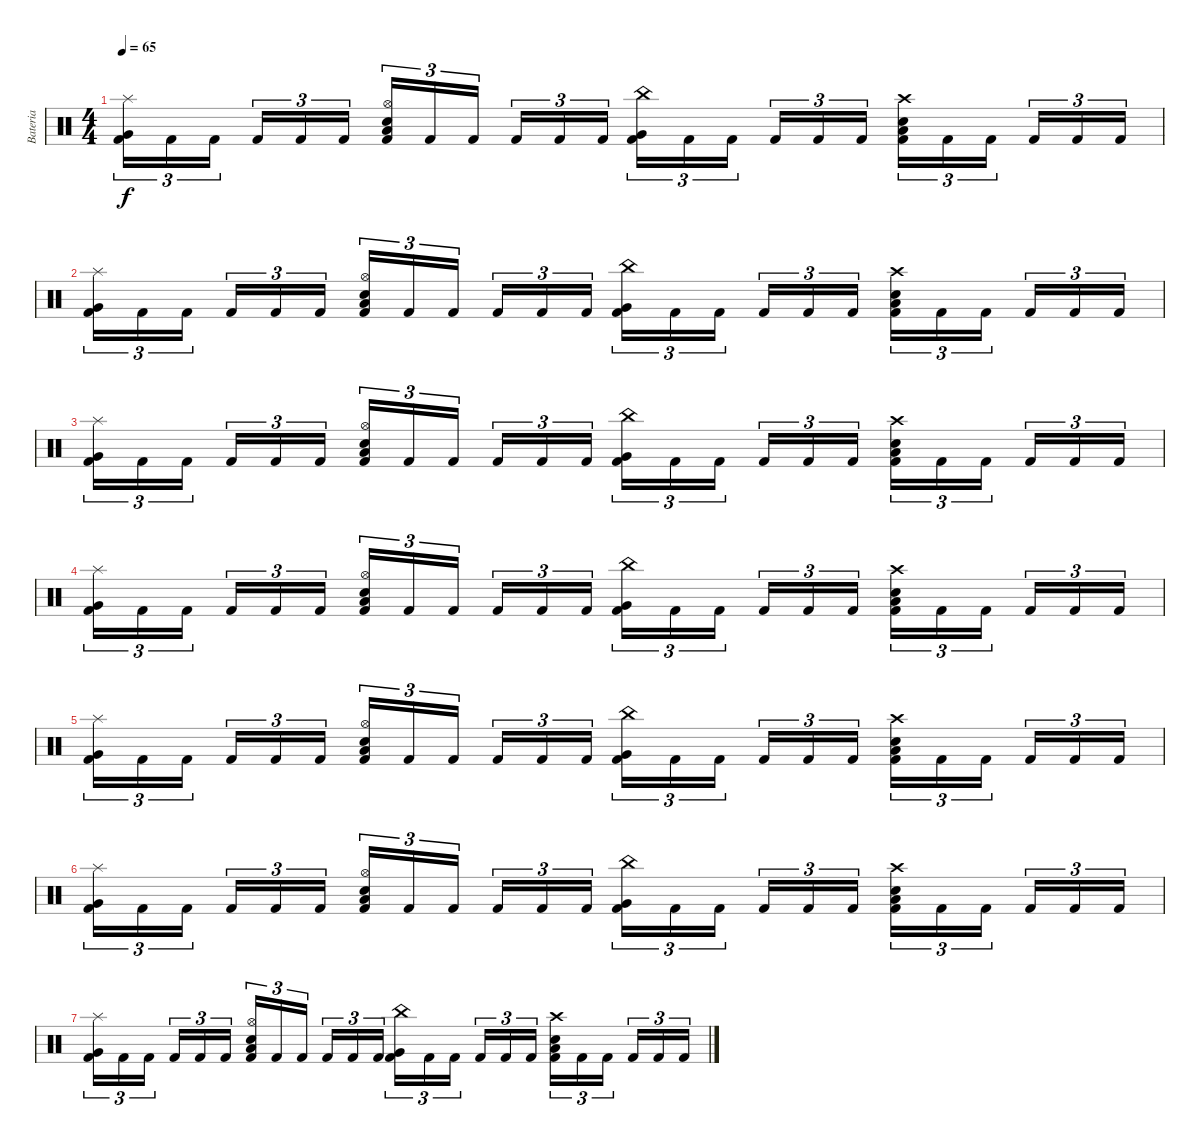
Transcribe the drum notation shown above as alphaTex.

\track ("Bateria" "Bateria") {instrument percussion}
\staff {score}
\articulation defaults
\ts (4 4)
\tempo 65
\clef neutral
\ks c
("Splash (hit)" "Very Low Tom (hit)" "Kick (hit) 2").16{tu (3 2) dy f} "Kick (hit) 2".16{tu (3 2)} "Kick (hit) 2".16{tu (3 2) beam splitsecondary} "Kick (hit) 2".16{tu (3 2)} "Kick (hit) 2".16{tu (3 2)} "Kick (hit) 2".16{tu (3 2)} ("Hi-Hat (open)" "Snare (hit) 2" "Low Tom (hit)" "Kick (hit) 2").16{tu (3 2)} "Kick (hit) 2".16{tu (3 2)} "Kick (hit) 2".16{tu (3 2) beam splitsecondary} "Kick (hit) 2".16{tu (3 2)} "Kick (hit) 2".16{tu (3 2)} "Kick (hit) 2".16{tu (3 2)} ("Very Low Tom (hit)" "China (hit)" "Kick (hit) 2").16{tu (3 2)} "Kick (hit) 2".16{tu (3 2)} "Kick (hit) 2".16{tu (3 2) beam splitsecondary} "Kick (hit) 2".16{tu (3 2)} "Kick (hit) 2".16{tu (3 2)} "Kick (hit) 2".16{tu (3 2)} ("Snare (hit) 2" "Crash high (hit)" "Low Tom (hit)" "Kick (hit) 2").16{tu (3 2)} "Kick (hit) 2".16{tu (3 2)} "Kick (hit) 2".16{tu (3 2) beam splitsecondary} "Kick (hit) 2".16{tu (3 2)} "Kick (hit) 2".16{tu (3 2)} "Kick (hit) 2".16{tu (3 2)} |
("Splash (hit)" "Very Low Tom (hit)" "Kick (hit) 2").16{tu (3 2)} "Kick (hit) 2".16{tu (3 2)} "Kick (hit) 2".16{tu (3 2) beam splitsecondary} "Kick (hit) 2".16{tu (3 2)} "Kick (hit) 2".16{tu (3 2)} "Kick (hit) 2".16{tu (3 2)} ("Hi-Hat (open)" "Snare (hit) 2" "Low Tom (hit)" "Kick (hit) 2").16{tu (3 2)} "Kick (hit) 2".16{tu (3 2)} "Kick (hit) 2".16{tu (3 2) beam splitsecondary} "Kick (hit) 2".16{tu (3 2)} "Kick (hit) 2".16{tu (3 2)} "Kick (hit) 2".16{tu (3 2)} ("Very Low Tom (hit)" "China (hit)" "Kick (hit) 2").16{tu (3 2)} "Kick (hit) 2".16{tu (3 2)} "Kick (hit) 2".16{tu (3 2) beam splitsecondary} "Kick (hit) 2".16{tu (3 2)} "Kick (hit) 2".16{tu (3 2)} "Kick (hit) 2".16{tu (3 2)} ("Snare (hit) 2" "Crash high (hit)" "Low Tom (hit)" "Kick (hit) 2").16{tu (3 2)} "Kick (hit) 2".16{tu (3 2)} "Kick (hit) 2".16{tu (3 2) beam splitsecondary} "Kick (hit) 2".16{tu (3 2)} "Kick (hit) 2".16{tu (3 2)} "Kick (hit) 2".16{tu (3 2)} |
("Splash (hit)" "Very Low Tom (hit)" "Kick (hit) 2").16{tu (3 2)} "Kick (hit) 2".16{tu (3 2)} "Kick (hit) 2".16{tu (3 2) beam splitsecondary} "Kick (hit) 2".16{tu (3 2)} "Kick (hit) 2".16{tu (3 2)} "Kick (hit) 2".16{tu (3 2)} ("Hi-Hat (open)" "Snare (hit) 2" "Low Tom (hit)" "Kick (hit) 2").16{tu (3 2)} "Kick (hit) 2".16{tu (3 2)} "Kick (hit) 2".16{tu (3 2) beam splitsecondary} "Kick (hit) 2".16{tu (3 2)} "Kick (hit) 2".16{tu (3 2)} "Kick (hit) 2".16{tu (3 2)} ("Very Low Tom (hit)" "China (hit)" "Kick (hit) 2").16{tu (3 2)} "Kick (hit) 2".16{tu (3 2)} "Kick (hit) 2".16{tu (3 2) beam splitsecondary} "Kick (hit) 2".16{tu (3 2)} "Kick (hit) 2".16{tu (3 2)} "Kick (hit) 2".16{tu (3 2)} ("Snare (hit) 2" "Crash high (hit)" "Low Tom (hit)" "Kick (hit) 2").16{tu (3 2)} "Kick (hit) 2".16{tu (3 2)} "Kick (hit) 2".16{tu (3 2) beam splitsecondary} "Kick (hit) 2".16{tu (3 2)} "Kick (hit) 2".16{tu (3 2)} "Kick (hit) 2".16{tu (3 2)} |
("Splash (hit)" "Very Low Tom (hit)" "Kick (hit) 2").16{tu (3 2)} "Kick (hit) 2".16{tu (3 2)} "Kick (hit) 2".16{tu (3 2) beam splitsecondary} "Kick (hit) 2".16{tu (3 2)} "Kick (hit) 2".16{tu (3 2)} "Kick (hit) 2".16{tu (3 2)} ("Hi-Hat (open)" "Snare (hit) 2" "Low Tom (hit)" "Kick (hit) 2").16{tu (3 2)} "Kick (hit) 2".16{tu (3 2)} "Kick (hit) 2".16{tu (3 2) beam splitsecondary} "Kick (hit) 2".16{tu (3 2)} "Kick (hit) 2".16{tu (3 2)} "Kick (hit) 2".16{tu (3 2)} ("Very Low Tom (hit)" "China (hit)" "Kick (hit) 2").16{tu (3 2)} "Kick (hit) 2".16{tu (3 2)} "Kick (hit) 2".16{tu (3 2) beam splitsecondary} "Kick (hit) 2".16{tu (3 2)} "Kick (hit) 2".16{tu (3 2)} "Kick (hit) 2".16{tu (3 2)} ("Snare (hit) 2" "Crash high (hit)" "Low Tom (hit)" "Kick (hit) 2").16{tu (3 2)} "Kick (hit) 2".16{tu (3 2)} "Kick (hit) 2".16{tu (3 2) beam splitsecondary} "Kick (hit) 2".16{tu (3 2)} "Kick (hit) 2".16{tu (3 2)} "Kick (hit) 2".16{tu (3 2)} |
("Splash (hit)" "Very Low Tom (hit)" "Kick (hit) 2").16{tu (3 2)} "Kick (hit) 2".16{tu (3 2)} "Kick (hit) 2".16{tu (3 2) beam splitsecondary} "Kick (hit) 2".16{tu (3 2)} "Kick (hit) 2".16{tu (3 2)} "Kick (hit) 2".16{tu (3 2)} ("Hi-Hat (open)" "Snare (hit) 2" "Low Tom (hit)" "Kick (hit) 2").16{tu (3 2)} "Kick (hit) 2".16{tu (3 2)} "Kick (hit) 2".16{tu (3 2) beam splitsecondary} "Kick (hit) 2".16{tu (3 2)} "Kick (hit) 2".16{tu (3 2)} "Kick (hit) 2".16{tu (3 2)} ("Very Low Tom (hit)" "China (hit)" "Kick (hit) 2").16{tu (3 2)} "Kick (hit) 2".16{tu (3 2)} "Kick (hit) 2".16{tu (3 2) beam splitsecondary} "Kick (hit) 2".16{tu (3 2)} "Kick (hit) 2".16{tu (3 2)} "Kick (hit) 2".16{tu (3 2)} ("Snare (hit) 2" "Crash high (hit)" "Low Tom (hit)" "Kick (hit) 2").16{tu (3 2)} "Kick (hit) 2".16{tu (3 2)} "Kick (hit) 2".16{tu (3 2) beam splitsecondary} "Kick (hit) 2".16{tu (3 2)} "Kick (hit) 2".16{tu (3 2)} "Kick (hit) 2".16{tu (3 2)} |
("Splash (hit)" "Very Low Tom (hit)" "Kick (hit) 2").16{tu (3 2)} "Kick (hit) 2".16{tu (3 2)} "Kick (hit) 2".16{tu (3 2) beam splitsecondary} "Kick (hit) 2".16{tu (3 2)} "Kick (hit) 2".16{tu (3 2)} "Kick (hit) 2".16{tu (3 2)} ("Hi-Hat (open)" "Snare (hit) 2" "Low Tom (hit)" "Kick (hit) 2").16{tu (3 2)} "Kick (hit) 2".16{tu (3 2)} "Kick (hit) 2".16{tu (3 2) beam splitsecondary} "Kick (hit) 2".16{tu (3 2)} "Kick (hit) 2".16{tu (3 2)} "Kick (hit) 2".16{tu (3 2)} ("Very Low Tom (hit)" "China (hit)" "Kick (hit) 2").16{tu (3 2)} "Kick (hit) 2".16{tu (3 2)} "Kick (hit) 2".16{tu (3 2) beam splitsecondary} "Kick (hit) 2".16{tu (3 2)} "Kick (hit) 2".16{tu (3 2)} "Kick (hit) 2".16{tu (3 2)} ("Snare (hit) 2" "Crash high (hit)" "Low Tom (hit)" "Kick (hit) 2").16{tu (3 2)} "Kick (hit) 2".16{tu (3 2)} "Kick (hit) 2".16{tu (3 2) beam splitsecondary} "Kick (hit) 2".16{tu (3 2)} "Kick (hit) 2".16{tu (3 2)} "Kick (hit) 2".16{tu (3 2)} |
("Splash (hit)" "Very Low Tom (hit)" "Kick (hit) 2").16{tu (3 2)} "Kick (hit) 2".16{tu (3 2)} "Kick (hit) 2".16{tu (3 2) beam splitsecondary} "Kick (hit) 2".16{tu (3 2)} "Kick (hit) 2".16{tu (3 2)} "Kick (hit) 2".16{tu (3 2)} ("Hi-Hat (open)" "Snare (hit) 2" "Low Tom (hit)" "Kick (hit) 2").16{tu (3 2)} "Kick (hit) 2".16{tu (3 2)} "Kick (hit) 2".16{tu (3 2) beam splitsecondary} "Kick (hit) 2".16{tu (3 2)} "Kick (hit) 2".16{tu (3 2)} "Kick (hit) 2".16{tu (3 2)} ("Very Low Tom (hit)" "China (hit)" "Kick (hit) 2").16{tu (3 2)} "Kick (hit) 2".16{tu (3 2)} "Kick (hit) 2".16{tu (3 2) beam splitsecondary} "Kick (hit) 2".16{tu (3 2)} "Kick (hit) 2".16{tu (3 2)} "Kick (hit) 2".16{tu (3 2)} ("Snare (hit) 2" "Crash high (hit)" "Low Tom (hit)" "Kick (hit) 2").16{tu (3 2)} "Kick (hit) 2".16{tu (3 2)} "Kick (hit) 2".16{tu (3 2) beam splitsecondary} "Kick (hit) 2".16{tu (3 2)} "Kick (hit) 2".16{tu (3 2)} "Kick (hit) 2".16{tu (3 2)}
